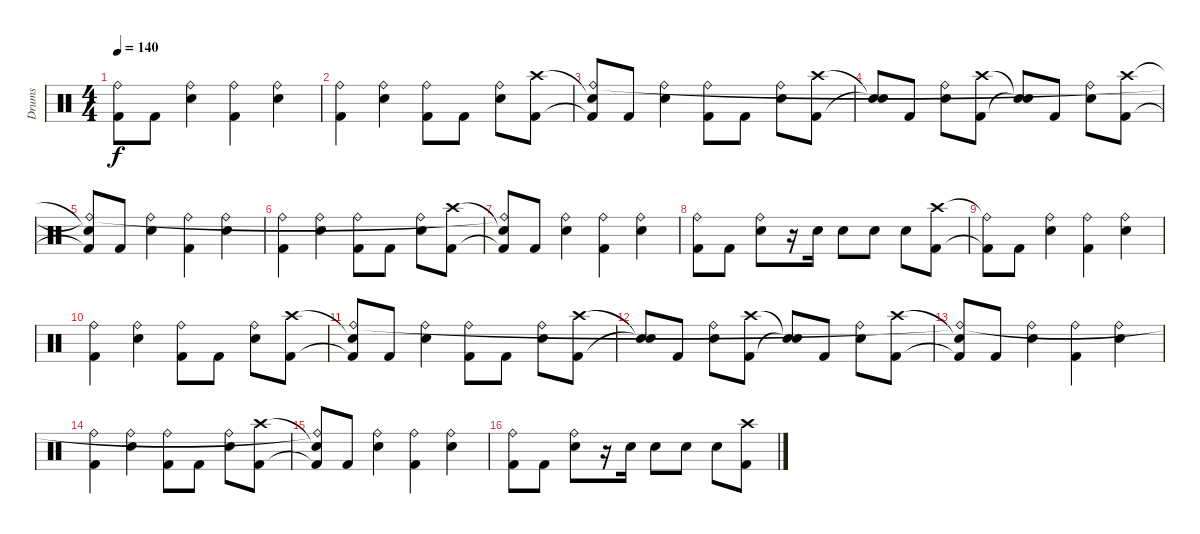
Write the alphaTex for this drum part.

\track ("Drums" "Drums") {instrument percussion}
\staff {score}
\articulation defaults
\ts (4 4)
\tempo 140
\clef neutral
\ks c
("Kick (hit) 2"{t} "Ride (bell)"{t}).8{dy f} "Kick (hit) 2".8 ("Electric Snare (hit)" "Ride (bell)").4 ("Kick (hit) 2" "Ride (bell)").4 ("Electric Snare (hit)" "Ride (bell)").4 |
("Kick (hit) 2" "Ride (bell)").4 ("Electric Snare (hit)" "Ride (bell)").4 ("Kick (hit) 2" "Ride (bell)").8 "Kick (hit) 2".8 ("Electric Snare (hit)" "Ride (bell)").8 ("Kick (hit) 2" "Crash high (hit)").8 |
("Kick (hit) 2"{t} "Snare (hit)"{t} "Ride (bell)").8 "Kick (hit) 2".8 ("Electric Snare (hit)" "Ride (bell)").4 ("Kick (hit) 2" "Ride (bell)").8 "Kick (hit) 2".8 ("Electric Snare (hit)" "Ride (bell)").8 ("Kick (hit) 2" "Crash high (hit)").8 |
("Snare (hit)"{t} "Snare (hit)"{t}).8 "Kick (hit) 2".8 ("Electric Snare (hit)" "Ride (bell)").8 ("Kick (hit) 2" "Crash high (hit)").8 ("Snare (hit)"{t} "Snare (hit)"{t}).8 "Kick (hit) 2".8 ("Electric Snare (hit)" "Ride (bell)").8 ("Kick (hit) 2" "Crash high (hit)").8 |
("Kick (hit) 2"{t} "Snare (hit)"{t} "Ride (bell)"{t}).8 "Kick (hit) 2".8 ("Electric Snare (hit)" "Ride (bell)").4 ("Kick (hit) 2" "Ride (bell)").4 ("Electric Snare (hit)" "Ride (bell)").4 |
("Kick (hit) 2" "Ride (bell)").4 ("Electric Snare (hit)" "Ride (bell)").4 ("Kick (hit) 2" "Ride (bell)").8 "Kick (hit) 2".8 ("Electric Snare (hit)" "Ride (bell)").8 ("Kick (hit) 2" "Crash high (hit)").8 |
("Kick (hit) 2"{t} "Snare (hit)"{t} "Ride (bell)"{t}).8 "Kick (hit) 2".8 ("Electric Snare (hit)" "Ride (bell)").4 ("Kick (hit) 2" "Ride (bell)").4 ("Electric Snare (hit)" "Ride (bell)").4 |
("Kick (hit) 2" "Ride (bell)").8 "Kick (hit) 2".8 ("Electric Snare (hit)" "Ride (bell)").8 r.16 "Electric Snare (hit)".16 "Electric Snare (hit)".8 "Electric Snare (hit)".8 "Electric Snare (hit)".8 ("Kick (hit) 2" "Crash high (hit)").8 |
("Kick (hit) 2"{t} "Ride (bell)"{t}).8 "Kick (hit) 2".8 ("Electric Snare (hit)" "Ride (bell)").4 ("Kick (hit) 2" "Ride (bell)").4 ("Electric Snare (hit)" "Ride (bell)").4 |
("Kick (hit) 2" "Ride (bell)").4 ("Electric Snare (hit)" "Ride (bell)").4 ("Kick (hit) 2" "Ride (bell)").8 "Kick (hit) 2".8 ("Electric Snare (hit)" "Ride (bell)").8 ("Kick (hit) 2" "Crash high (hit)").8 |
("Kick (hit) 2"{t} "Snare (hit)"{t} "Ride (bell)").8 "Kick (hit) 2".8 ("Electric Snare (hit)" "Ride (bell)").4 ("Kick (hit) 2" "Ride (bell)").8 "Kick (hit) 2".8 ("Electric Snare (hit)" "Ride (bell)").8 ("Kick (hit) 2" "Crash high (hit)").8 |
("Snare (hit)"{t} "Snare (hit)"{t}).8 "Kick (hit) 2".8 ("Electric Snare (hit)" "Ride (bell)").8 ("Kick (hit) 2" "Crash high (hit)").8 ("Snare (hit)"{t} "Snare (hit)"{t}).8 "Kick (hit) 2".8 ("Electric Snare (hit)" "Ride (bell)").8 ("Kick (hit) 2" "Crash high (hit)").8 |
("Kick (hit) 2"{t} "Snare (hit)"{t} "Ride (bell)"{t}).8 "Kick (hit) 2".8 ("Electric Snare (hit)" "Ride (bell)").4 ("Kick (hit) 2" "Ride (bell)").4 ("Electric Snare (hit)" "Ride (bell)").4 |
("Kick (hit) 2" "Ride (bell)").4 ("Electric Snare (hit)" "Ride (bell)").4 ("Kick (hit) 2" "Ride (bell)").8 "Kick (hit) 2".8 ("Electric Snare (hit)" "Ride (bell)").8 ("Kick (hit) 2" "Crash high (hit)").8 |
("Kick (hit) 2"{t} "Snare (hit)"{t} "Ride (bell)"{t}).8 "Kick (hit) 2".8 ("Electric Snare (hit)" "Ride (bell)").4 ("Kick (hit) 2" "Ride (bell)").4 ("Electric Snare (hit)" "Ride (bell)").4 |
("Kick (hit) 2" "Ride (bell)").8 "Kick (hit) 2".8 ("Electric Snare (hit)" "Ride (bell)").8 r.16 "Electric Snare (hit)".16 "Electric Snare (hit)".8 "Electric Snare (hit)".8 "Electric Snare (hit)".8 ("Kick (hit) 2" "Crash high (hit)").8
